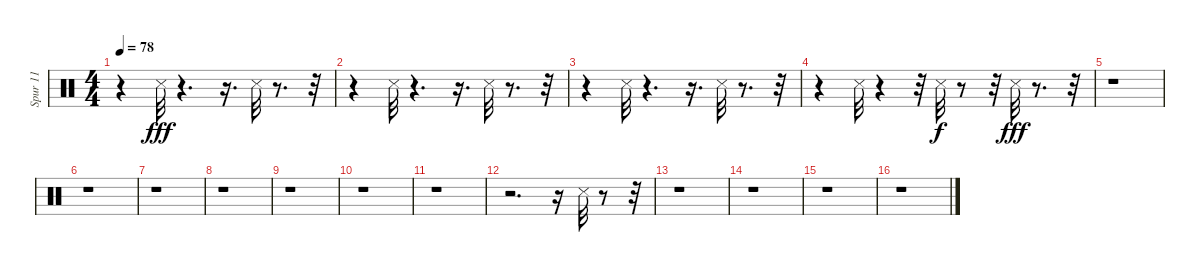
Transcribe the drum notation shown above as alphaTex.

\track ("Spur 11" "Spur 11") {instrument percussion}
\staff {score}
\articulation defaults
\ts (4 4)
\tempo 78
\clef neutral
\ks c
r.4{dy fff} "Snare (side stick) 3".32 r.4{d} r.16{d} "Snare (side stick) 3".32 r.8{d} r.32 |
r.4 "Snare (side stick) 3".32 r.4{d} r.16{d} "Snare (side stick) 3".32 r.8{d} r.32 |
r.4 "Snare (side stick) 3".32 r.4{d} r.16{d} "Snare (side stick) 3".32 r.8{d} r.32 |
r.4 "Snare (side stick) 3".32 r.4 r.32 "Snare (side stick) 3".32{dy f} r.8 r.32 "Snare (side stick) 3".32{dy fff} r.8{d} r.32 |
r.1 |
r.1 |
r.1 |
r.1 |
r.1 |
r.1 |
r.1 |
r.2{d} r.16 "Snare (side stick) 3".32 r.8 r.32 |
r.1 |
r.1 |
r.1 |
r.1
